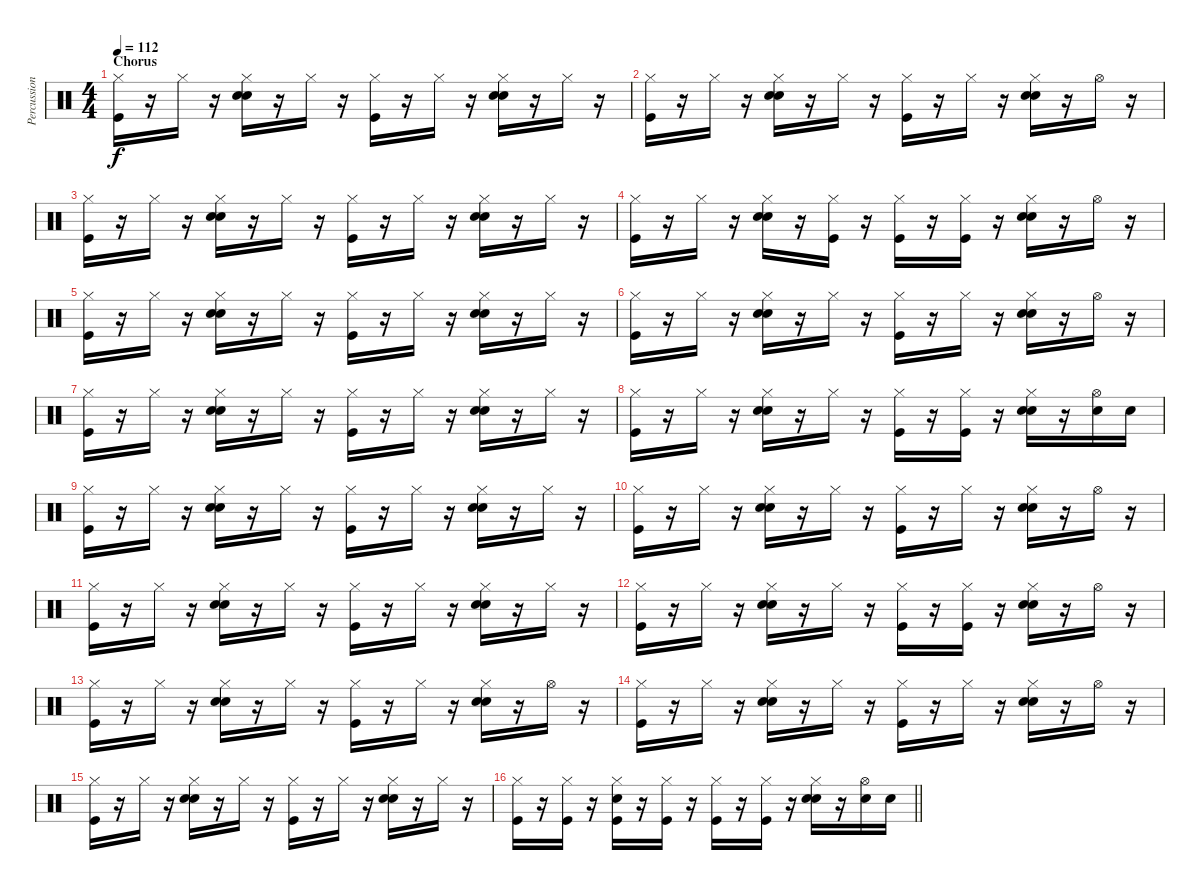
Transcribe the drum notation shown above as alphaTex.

\track ("Percussion" "Percussion") {instrument percussion}
\staff {score}
\articulation defaults
\ts (4 4)
\section ("" "Chorus")
\tempo 112
\clef neutral
\ks c
("Hi-Hat (closed)" "Kick (hit)").16{dy f} r.16 "Hi-Hat (closed)".16 r.16 ("Hi-Hat (closed)" "Hand Clap (hit)" "Snare (hit) 2").16 r.16 "Hi-Hat (closed)".16 r.16 ("Hi-Hat (closed)" "Kick (hit)").16 r.16 "Hi-Hat (closed)".16 r.16 ("Hi-Hat (closed)" "Hand Clap (hit)" "Snare (hit) 2").16 r.16 "Hi-Hat (closed)".16 r.16 |
("Hi-Hat (closed)" "Kick (hit)").16 r.16 "Hi-Hat (closed)".16 r.16 ("Hi-Hat (closed)" "Hand Clap (hit)" "Snare (hit) 2").16 r.16 "Hi-Hat (closed)".16 r.16 ("Hi-Hat (closed)" "Kick (hit)").16 r.16 "Hi-Hat (closed)".16 r.16 ("Hi-Hat (closed)" "Hand Clap (hit)" "Snare (hit) 2").16 r.16 "Hi-Hat (open)".16 r.16 |
("Hi-Hat (closed)" "Kick (hit)").16 r.16 "Hi-Hat (closed)".16 r.16 ("Hi-Hat (closed)" "Hand Clap (hit)" "Snare (hit) 2").16 r.16 "Hi-Hat (closed)".16 r.16 ("Hi-Hat (closed)" "Kick (hit)").16 r.16 "Hi-Hat (closed)".16 r.16 ("Hi-Hat (closed)" "Hand Clap (hit)" "Snare (hit) 2").16 r.16 "Hi-Hat (closed)".16 r.16 |
("Hi-Hat (closed)" "Kick (hit)").16 r.16 "Hi-Hat (closed)".16 r.16 ("Hi-Hat (closed)" "Hand Clap (hit)" "Snare (hit) 2").16 r.16 ("Hi-Hat (closed)" "Kick (hit)").16 r.16 ("Hi-Hat (closed)" "Kick (hit)").16 r.16 ("Hi-Hat (closed)" "Kick (hit)").16 r.16 ("Hi-Hat (closed)" "Hand Clap (hit)" "Snare (hit) 2").16 r.16 "Hi-Hat (open)".16 r.16 |
("Hi-Hat (closed)" "Kick (hit)").16 r.16 "Hi-Hat (closed)".16 r.16 ("Hi-Hat (closed)" "Hand Clap (hit)" "Snare (hit) 2").16 r.16 "Hi-Hat (closed)".16 r.16 ("Hi-Hat (closed)" "Kick (hit)").16 r.16 "Hi-Hat (closed)".16 r.16 ("Hi-Hat (closed)" "Hand Clap (hit)" "Snare (hit) 2").16 r.16 "Hi-Hat (closed)".16 r.16 |
("Hi-Hat (closed)" "Kick (hit)").16 r.16 "Hi-Hat (closed)".16 r.16 ("Hi-Hat (closed)" "Hand Clap (hit)" "Snare (hit) 2").16 r.16 "Hi-Hat (closed)".16 r.16 ("Hi-Hat (closed)" "Kick (hit)").16 r.16 "Hi-Hat (closed)".16 r.16 ("Hi-Hat (closed)" "Hand Clap (hit)" "Snare (hit) 2").16 r.16 "Hi-Hat (open)".16 r.16 |
("Hi-Hat (closed)" "Kick (hit)").16 r.16 "Hi-Hat (closed)".16 r.16 ("Hi-Hat (closed)" "Hand Clap (hit)" "Snare (hit) 2").16 r.16 "Hi-Hat (closed)".16 r.16 ("Hi-Hat (closed)" "Kick (hit)").16 r.16 "Hi-Hat (closed)".16 r.16 ("Hi-Hat (closed)" "Hand Clap (hit)" "Snare (hit) 2").16 r.16 "Hi-Hat (closed)".16 r.16 |
("Hi-Hat (closed)" "Kick (hit)").16 r.16 "Hi-Hat (closed)".16 r.16 ("Hi-Hat (closed)" "Hand Clap (hit)" "Snare (hit) 2").16 r.16 "Hi-Hat (closed)".16 r.16 ("Hi-Hat (closed)" "Kick (hit)").16 r.16 ("Hi-Hat (closed)" "Kick (hit)").16 r.16 ("Hi-Hat (closed)" "Hand Clap (hit)" "Snare (hit) 2").16 r.16 ("Hi-Hat (open)" "Snare (hit) 2").16 "Snare (hit) 2".16 |
("Hi-Hat (closed)" "Kick (hit)").16 r.16 "Hi-Hat (closed)".16 r.16 ("Hi-Hat (closed)" "Hand Clap (hit)" "Snare (hit) 2").16 r.16 "Hi-Hat (closed)".16 r.16 ("Hi-Hat (closed)" "Kick (hit)").16 r.16 "Hi-Hat (closed)".16 r.16 ("Hi-Hat (closed)" "Hand Clap (hit)" "Snare (hit) 2").16 r.16 "Hi-Hat (closed)".16 r.16 |
("Hi-Hat (closed)" "Kick (hit)").16 r.16 "Hi-Hat (closed)".16 r.16 ("Hi-Hat (closed)" "Hand Clap (hit)" "Snare (hit) 2").16 r.16 "Hi-Hat (closed)".16 r.16 ("Hi-Hat (closed)" "Kick (hit)").16 r.16 "Hi-Hat (closed)".16 r.16 ("Hi-Hat (closed)" "Hand Clap (hit)" "Snare (hit) 2").16 r.16 "Hi-Hat (open)".16 r.16 |
("Hi-Hat (closed)" "Kick (hit)").16 r.16 "Hi-Hat (closed)".16 r.16 ("Hi-Hat (closed)" "Hand Clap (hit)" "Snare (hit) 2").16 r.16 "Hi-Hat (closed)".16 r.16 ("Hi-Hat (closed)" "Kick (hit)").16 r.16 "Hi-Hat (closed)".16 r.16 ("Hi-Hat (closed)" "Hand Clap (hit)" "Snare (hit) 2").16 r.16 "Hi-Hat (closed)".16 r.16 |
("Hi-Hat (closed)" "Kick (hit)").16 r.16 "Hi-Hat (closed)".16 r.16 ("Hi-Hat (closed)" "Hand Clap (hit)" "Snare (hit) 2").16 r.16 "Hi-Hat (closed)".16 r.16 ("Hi-Hat (closed)" "Kick (hit)").16 r.16 ("Hi-Hat (closed)" "Kick (hit)").16 r.16 ("Hi-Hat (closed)" "Hand Clap (hit)" "Snare (hit) 2").16 r.16 "Hi-Hat (open)".16 r.16 |
("Hi-Hat (closed)" "Kick (hit)").16 r.16 "Hi-Hat (closed)".16 r.16 ("Hi-Hat (closed)" "Hand Clap (hit)" "Snare (hit) 2").16 r.16 "Hi-Hat (closed)".16 r.16 ("Hi-Hat (closed)" "Kick (hit)").16 r.16 "Hi-Hat (closed)".16 r.16 ("Hi-Hat (closed)" "Hand Clap (hit)" "Snare (hit) 2").16 r.16 "Hi-Hat (open)".16 r.16 |
("Hi-Hat (closed)" "Kick (hit)").16 r.16 "Hi-Hat (closed)".16 r.16 ("Hi-Hat (closed)" "Hand Clap (hit)" "Snare (hit) 2").16 r.16 "Hi-Hat (closed)".16 r.16 ("Hi-Hat (closed)" "Kick (hit)").16 r.16 "Hi-Hat (closed)".16 r.16 ("Hi-Hat (closed)" "Hand Clap (hit)" "Snare (hit) 2").16 r.16 "Hi-Hat (open)".16 r.16 |
("Hi-Hat (closed)" "Kick (hit)").16 r.16 "Hi-Hat (closed)".16 r.16 ("Hi-Hat (closed)" "Hand Clap (hit)" "Snare (hit) 2").16 r.16 "Hi-Hat (closed)".16 r.16 ("Hi-Hat (closed)" "Kick (hit)").16 r.16 "Hi-Hat (closed)".16 r.16 ("Hi-Hat (closed)" "Hand Clap (hit)" "Snare (hit) 2").16 r.16 "Hi-Hat (closed)".16 r.16 |
\barLineRight lightlight
("Hi-Hat (closed)" "Kick (hit)").16 r.16 ("Hi-Hat (closed)" "Kick (hit)").16 r.16 ("Hi-Hat (closed)" "Hand Clap (hit)" "Kick (hit)").16 r.16 ("Hi-Hat (closed)" "Kick (hit)").16 r.16 ("Hi-Hat (closed)" "Kick (hit)").16 r.16 ("Hi-Hat (closed)" "Kick (hit)").16 r.16 ("Hi-Hat (closed)" "Hand Clap (hit)" "Snare (hit) 2").16 r.16 ("Hi-Hat (open)" "Snare (hit) 2").16 "Snare (hit) 2".16
